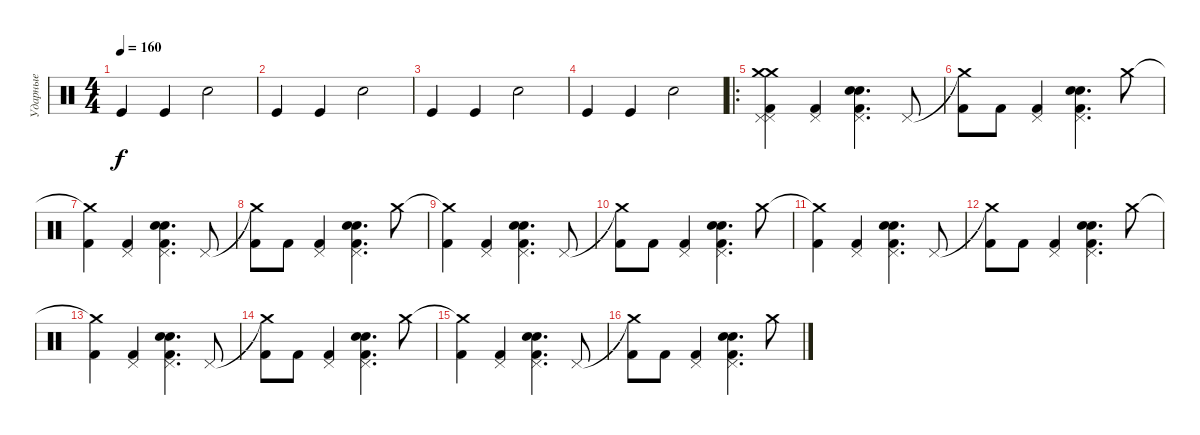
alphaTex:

\track ("Ударные" "Ударные") {instrument percussion}
\staff {score}
\articulation defaults
\ts (4 4)
\tempo 160
\clef neutral
\ks c "Kick (hit)".4{dy f} "Kick (hit)".4 "Electric Snare (hit)".2
|
"Kick (hit)".4 "Kick (hit)".4 "Electric Snare (hit)".2 |
"Kick (hit)".4 "Kick (hit)".4 "Electric Snare (hit)".2 |
"Kick (hit)".4 "Kick (hit)".4 "Electric Snare (hit)".2 |
\ro
("Crash medium (hit)" "Crash medium (hit)" "Pedal Hi-Hat (hit)" "Pedal Hi-Hat (hit)" "Kick (hit) 2").4 ("Pedal Hi-Hat (hit)" "Kick (hit) 2").4 ("Pedal Hi-Hat (hit)" "Snare (hit) 2" "Electric Snare (hit)" "Kick (hit) 2").4{d} "Pedal Hi-Hat (hit)".8 |
("Crash medium (hit)"{t} "Kick (hit) 2").8 "Kick (hit) 2".8 ("Pedal Hi-Hat (hit)" "Kick (hit) 2").4 ("Pedal Hi-Hat (hit)" "Snare (hit) 2" "Electric Snare (hit)" "Kick (hit) 2").4{d} "Crash medium (hit)".8 |
("Crash medium (hit)"{t} "Kick (hit) 2").4 ("Pedal Hi-Hat (hit)" "Kick (hit) 2").4 ("Pedal Hi-Hat (hit)" "Snare (hit) 2" "Electric Snare (hit)" "Kick (hit) 2").4{d} "Pedal Hi-Hat (hit)".8 |
("Crash medium (hit)"{t} "Kick (hit) 2").8 "Kick (hit) 2".8 ("Pedal Hi-Hat (hit)" "Kick (hit) 2").4 ("Pedal Hi-Hat (hit)" "Snare (hit) 2" "Electric Snare (hit)" "Kick (hit) 2").4{d} "Crash medium (hit)".8 |
("Crash medium (hit)"{t} "Kick (hit) 2").4 ("Pedal Hi-Hat (hit)" "Kick (hit) 2").4 ("Pedal Hi-Hat (hit)" "Snare (hit) 2" "Electric Snare (hit)" "Kick (hit) 2").4{d} "Pedal Hi-Hat (hit)".8 |
("Crash medium (hit)"{t} "Kick (hit) 2").8 "Kick (hit) 2".8 ("Pedal Hi-Hat (hit)" "Kick (hit) 2").4 ("Pedal Hi-Hat (hit)" "Snare (hit) 2" "Electric Snare (hit)" "Kick (hit) 2").4{d} "Crash medium (hit)".8 |
("Crash medium (hit)"{t} "Kick (hit) 2").4 ("Pedal Hi-Hat (hit)" "Kick (hit) 2").4 ("Pedal Hi-Hat (hit)" "Snare (hit) 2" "Electric Snare (hit)" "Kick (hit) 2").4{d} "Pedal Hi-Hat (hit)".8 |
("Crash medium (hit)"{t} "Kick (hit) 2").8 "Kick (hit) 2".8 ("Pedal Hi-Hat (hit)" "Kick (hit) 2").4 ("Pedal Hi-Hat (hit)" "Snare (hit) 2" "Electric Snare (hit)" "Kick (hit) 2").4{d} "Crash medium (hit)".8 |
("Crash medium (hit)"{t} "Kick (hit) 2").4 ("Pedal Hi-Hat (hit)" "Kick (hit) 2").4 ("Pedal Hi-Hat (hit)" "Snare (hit) 2" "Electric Snare (hit)" "Kick (hit) 2").4{d} "Pedal Hi-Hat (hit)".8 |
("Crash medium (hit)"{t} "Kick (hit) 2").8 "Kick (hit) 2".8 ("Pedal Hi-Hat (hit)" "Kick (hit) 2").4 ("Pedal Hi-Hat (hit)" "Snare (hit) 2" "Electric Snare (hit)" "Kick (hit) 2").4{d} "Crash medium (hit)".8 |
("Crash medium (hit)"{t} "Kick (hit) 2").4 ("Pedal Hi-Hat (hit)" "Kick (hit) 2").4 ("Pedal Hi-Hat (hit)" "Snare (hit) 2" "Electric Snare (hit)" "Kick (hit) 2").4{d} "Pedal Hi-Hat (hit)".8 |
("Crash medium (hit)"{t} "Kick (hit) 2").8 "Kick (hit) 2".8 ("Pedal Hi-Hat (hit)" "Kick (hit) 2").4 ("Pedal Hi-Hat (hit)" "Snare (hit) 2" "Electric Snare (hit)" "Kick (hit) 2").4{d} "Crash medium (hit)".8
